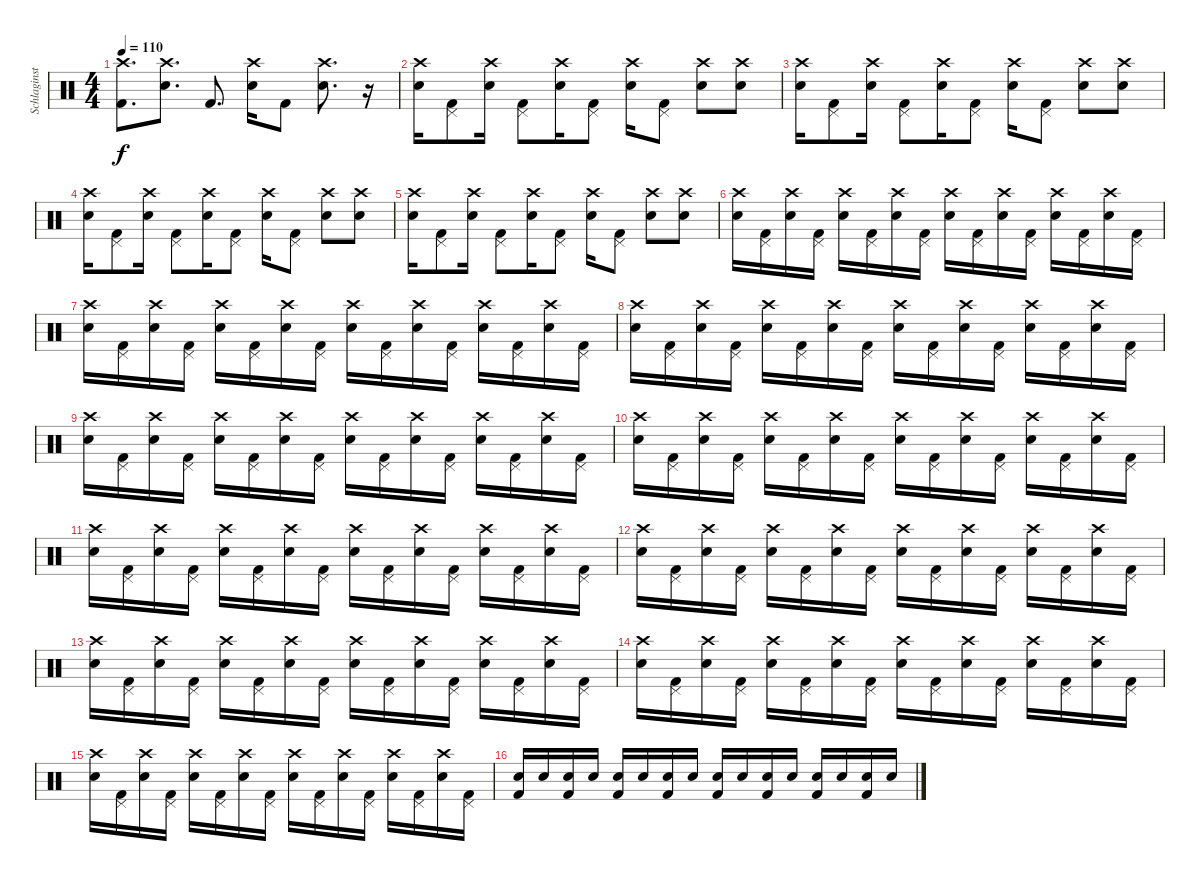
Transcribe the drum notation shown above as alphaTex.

\track ("Schlaginstrumente - Auswahl" "Schlaginst") {instrument percussion}
\staff {score}
\articulation defaults
\ts (4 4)
\tempo 110
\clef neutral
\ks c
("Crash high (hit)" "Kick (hit) 2").8{d dy f} ("Crash high (hit)" "Snare (hit) 2").8{d} "Kick (hit) 2".8{d} ("Crash high (hit)" "Snare (hit) 2").16 "Kick (hit) 2".8 ("Crash high (hit)" "Snare (hit) 2").8{d} r.16 |
("Crash high (hit)" "Snare (hit) 2").16 ("Pedal Hi-Hat (hit)" "Kick (hit) 2").8 ("Crash high (hit)" "Snare (hit) 2").16 ("Pedal Hi-Hat (hit)" "Kick (hit) 2").8 ("Crash high (hit)" "Snare (hit) 2").16 ("Pedal Hi-Hat (hit)" "Kick (hit) 2").8 ("Crash high (hit)" "Snare (hit) 2").16 ("Pedal Hi-Hat (hit)" "Kick (hit) 2").8 ("Crash high (hit)" "Snare (hit) 2").8 ("Crash high (hit)" "Snare (hit) 2").8 |
("Crash high (hit)" "Snare (hit) 2").16 ("Pedal Hi-Hat (hit)" "Kick (hit) 2").8 ("Crash high (hit)" "Snare (hit) 2").16 ("Pedal Hi-Hat (hit)" "Kick (hit) 2").8 ("Crash high (hit)" "Snare (hit) 2").16 ("Pedal Hi-Hat (hit)" "Kick (hit) 2").8 ("Crash high (hit)" "Snare (hit) 2").16 ("Pedal Hi-Hat (hit)" "Kick (hit) 2").8 ("Crash high (hit)" "Snare (hit) 2").8 ("Crash high (hit)" "Snare (hit) 2").8 |
("Crash high (hit)" "Snare (hit) 2").16 ("Pedal Hi-Hat (hit)" "Kick (hit) 2").8 ("Crash high (hit)" "Snare (hit) 2").16 ("Pedal Hi-Hat (hit)" "Kick (hit) 2").8 ("Crash high (hit)" "Snare (hit) 2").16 ("Pedal Hi-Hat (hit)" "Kick (hit) 2").8 ("Crash high (hit)" "Snare (hit) 2").16 ("Pedal Hi-Hat (hit)" "Kick (hit) 2").8 ("Crash high (hit)" "Snare (hit) 2").8 ("Crash high (hit)" "Snare (hit) 2").8 |
("Crash high (hit)" "Snare (hit) 2").16 ("Pedal Hi-Hat (hit)" "Kick (hit) 2").8 ("Crash high (hit)" "Snare (hit) 2").16 ("Pedal Hi-Hat (hit)" "Kick (hit) 2").8 ("Crash high (hit)" "Snare (hit) 2").16 ("Pedal Hi-Hat (hit)" "Kick (hit) 2").8 ("Crash high (hit)" "Snare (hit) 2").16 ("Pedal Hi-Hat (hit)" "Kick (hit) 2").8 ("Crash high (hit)" "Snare (hit) 2").8 ("Crash high (hit)" "Snare (hit) 2").8 |
("Crash high (hit)" "Snare (hit) 2").16 ("Pedal Hi-Hat (hit)" "Kick (hit) 2").16 ("Crash high (hit)" "Snare (hit) 2").16 ("Pedal Hi-Hat (hit)" "Kick (hit) 2").16 ("Crash high (hit)" "Snare (hit) 2").16 ("Pedal Hi-Hat (hit)" "Kick (hit) 2").16 ("Crash high (hit)" "Snare (hit) 2").16 ("Pedal Hi-Hat (hit)" "Kick (hit) 2").16 ("Crash high (hit)" "Snare (hit) 2").16 ("Pedal Hi-Hat (hit)" "Kick (hit) 2").16 ("Crash high (hit)" "Snare (hit) 2").16 ("Pedal Hi-Hat (hit)" "Kick (hit) 2").16 ("Crash high (hit)" "Snare (hit) 2").16 ("Pedal Hi-Hat (hit)" "Kick (hit) 2").16 ("Crash high (hit)" "Snare (hit) 2").16 ("Pedal Hi-Hat (hit)" "Kick (hit) 2").16 |
("Crash high (hit)" "Snare (hit) 2").16 ("Pedal Hi-Hat (hit)" "Kick (hit) 2").16 ("Crash high (hit)" "Snare (hit) 2").16 ("Pedal Hi-Hat (hit)" "Kick (hit) 2").16 ("Crash high (hit)" "Snare (hit) 2").16 ("Pedal Hi-Hat (hit)" "Kick (hit) 2").16 ("Crash high (hit)" "Snare (hit) 2").16 ("Pedal Hi-Hat (hit)" "Kick (hit) 2").16 ("Crash high (hit)" "Snare (hit) 2").16 ("Pedal Hi-Hat (hit)" "Kick (hit) 2").16 ("Crash high (hit)" "Snare (hit) 2").16 ("Pedal Hi-Hat (hit)" "Kick (hit) 2").16 ("Crash high (hit)" "Snare (hit) 2").16 ("Pedal Hi-Hat (hit)" "Kick (hit) 2").16 ("Crash high (hit)" "Snare (hit) 2").16 ("Pedal Hi-Hat (hit)" "Kick (hit) 2").16 |
("Crash high (hit)" "Snare (hit) 2").16 ("Pedal Hi-Hat (hit)" "Kick (hit) 2").16 ("Crash high (hit)" "Snare (hit) 2").16 ("Pedal Hi-Hat (hit)" "Kick (hit) 2").16 ("Crash high (hit)" "Snare (hit) 2").16 ("Pedal Hi-Hat (hit)" "Kick (hit) 2").16 ("Crash high (hit)" "Snare (hit) 2").16 ("Pedal Hi-Hat (hit)" "Kick (hit) 2").16 ("Crash high (hit)" "Snare (hit) 2").16 ("Pedal Hi-Hat (hit)" "Kick (hit) 2").16 ("Crash high (hit)" "Snare (hit) 2").16 ("Pedal Hi-Hat (hit)" "Kick (hit) 2").16 ("Crash high (hit)" "Snare (hit) 2").16 ("Pedal Hi-Hat (hit)" "Kick (hit) 2").16 ("Crash high (hit)" "Snare (hit) 2").16 ("Pedal Hi-Hat (hit)" "Kick (hit) 2").16 |
("Crash high (hit)" "Snare (hit) 2").16 ("Pedal Hi-Hat (hit)" "Kick (hit) 2").16 ("Crash high (hit)" "Snare (hit) 2").16 ("Pedal Hi-Hat (hit)" "Kick (hit) 2").16 ("Crash high (hit)" "Snare (hit) 2").16 ("Pedal Hi-Hat (hit)" "Kick (hit) 2").16 ("Crash high (hit)" "Snare (hit) 2").16 ("Pedal Hi-Hat (hit)" "Kick (hit) 2").16 ("Crash high (hit)" "Snare (hit) 2").16 ("Pedal Hi-Hat (hit)" "Kick (hit) 2").16 ("Crash high (hit)" "Snare (hit) 2").16 ("Pedal Hi-Hat (hit)" "Kick (hit) 2").16 ("Crash high (hit)" "Snare (hit) 2").16 ("Pedal Hi-Hat (hit)" "Kick (hit) 2").16 ("Crash high (hit)" "Snare (hit) 2").16 ("Pedal Hi-Hat (hit)" "Kick (hit) 2").16 |
("Crash high (hit)" "Snare (hit) 2").16 ("Pedal Hi-Hat (hit)" "Kick (hit) 2").16 ("Crash high (hit)" "Snare (hit) 2").16 ("Pedal Hi-Hat (hit)" "Kick (hit) 2").16 ("Crash high (hit)" "Snare (hit) 2").16 ("Pedal Hi-Hat (hit)" "Kick (hit) 2").16 ("Crash high (hit)" "Snare (hit) 2").16 ("Pedal Hi-Hat (hit)" "Kick (hit) 2").16 ("Crash high (hit)" "Snare (hit) 2").16 ("Pedal Hi-Hat (hit)" "Kick (hit) 2").16 ("Crash high (hit)" "Snare (hit) 2").16 ("Pedal Hi-Hat (hit)" "Kick (hit) 2").16 ("Crash high (hit)" "Snare (hit) 2").16 ("Pedal Hi-Hat (hit)" "Kick (hit) 2").16 ("Crash high (hit)" "Snare (hit) 2").16 ("Pedal Hi-Hat (hit)" "Kick (hit) 2").16 |
("Crash high (hit)" "Snare (hit) 2").16 ("Pedal Hi-Hat (hit)" "Kick (hit) 2").16 ("Crash high (hit)" "Snare (hit) 2").16 ("Pedal Hi-Hat (hit)" "Kick (hit) 2").16 ("Crash high (hit)" "Snare (hit) 2").16 ("Pedal Hi-Hat (hit)" "Kick (hit) 2").16 ("Crash high (hit)" "Snare (hit) 2").16 ("Pedal Hi-Hat (hit)" "Kick (hit) 2").16 ("Crash high (hit)" "Snare (hit) 2").16 ("Pedal Hi-Hat (hit)" "Kick (hit) 2").16 ("Crash high (hit)" "Snare (hit) 2").16 ("Pedal Hi-Hat (hit)" "Kick (hit) 2").16 ("Crash high (hit)" "Snare (hit) 2").16 ("Pedal Hi-Hat (hit)" "Kick (hit) 2").16 ("Crash high (hit)" "Snare (hit) 2").16 ("Pedal Hi-Hat (hit)" "Kick (hit) 2").16 |
("Crash high (hit)" "Snare (hit) 2").16 ("Pedal Hi-Hat (hit)" "Kick (hit) 2").16 ("Crash high (hit)" "Snare (hit) 2").16 ("Pedal Hi-Hat (hit)" "Kick (hit) 2").16 ("Crash high (hit)" "Snare (hit) 2").16 ("Pedal Hi-Hat (hit)" "Kick (hit) 2").16 ("Crash high (hit)" "Snare (hit) 2").16 ("Pedal Hi-Hat (hit)" "Kick (hit) 2").16 ("Crash high (hit)" "Snare (hit) 2").16 ("Pedal Hi-Hat (hit)" "Kick (hit) 2").16 ("Crash high (hit)" "Snare (hit) 2").16 ("Pedal Hi-Hat (hit)" "Kick (hit) 2").16 ("Crash high (hit)" "Snare (hit) 2").16 ("Pedal Hi-Hat (hit)" "Kick (hit) 2").16 ("Crash high (hit)" "Snare (hit) 2").16 ("Pedal Hi-Hat (hit)" "Kick (hit) 2").16 |
("Crash high (hit)" "Snare (hit) 2").16 ("Pedal Hi-Hat (hit)" "Kick (hit) 2").16 ("Crash high (hit)" "Snare (hit) 2").16 ("Pedal Hi-Hat (hit)" "Kick (hit) 2").16 ("Crash high (hit)" "Snare (hit) 2").16 ("Pedal Hi-Hat (hit)" "Kick (hit) 2").16 ("Crash high (hit)" "Snare (hit) 2").16 ("Pedal Hi-Hat (hit)" "Kick (hit) 2").16 ("Crash high (hit)" "Snare (hit) 2").16 ("Pedal Hi-Hat (hit)" "Kick (hit) 2").16 ("Crash high (hit)" "Snare (hit) 2").16 ("Pedal Hi-Hat (hit)" "Kick (hit) 2").16 ("Crash high (hit)" "Snare (hit) 2").16 ("Pedal Hi-Hat (hit)" "Kick (hit) 2").16 ("Crash high (hit)" "Snare (hit) 2").16 ("Pedal Hi-Hat (hit)" "Kick (hit) 2").16 |
("Crash high (hit)" "Snare (hit) 2").16 ("Pedal Hi-Hat (hit)" "Kick (hit) 2").16 ("Crash high (hit)" "Snare (hit) 2").16 ("Pedal Hi-Hat (hit)" "Kick (hit) 2").16 ("Crash high (hit)" "Snare (hit) 2").16 ("Pedal Hi-Hat (hit)" "Kick (hit) 2").16 ("Crash high (hit)" "Snare (hit) 2").16 ("Pedal Hi-Hat (hit)" "Kick (hit) 2").16 ("Crash high (hit)" "Snare (hit) 2").16 ("Pedal Hi-Hat (hit)" "Kick (hit) 2").16 ("Crash high (hit)" "Snare (hit) 2").16 ("Pedal Hi-Hat (hit)" "Kick (hit) 2").16 ("Crash high (hit)" "Snare (hit) 2").16 ("Pedal Hi-Hat (hit)" "Kick (hit) 2").16 ("Crash high (hit)" "Snare (hit) 2").16 ("Pedal Hi-Hat (hit)" "Kick (hit) 2").16 |
("Crash high (hit)" "Snare (hit) 2").16 ("Pedal Hi-Hat (hit)" "Kick (hit) 2").16 ("Crash high (hit)" "Snare (hit) 2").16 ("Pedal Hi-Hat (hit)" "Kick (hit) 2").16 ("Crash high (hit)" "Snare (hit) 2").16 ("Pedal Hi-Hat (hit)" "Kick (hit) 2").16 ("Crash high (hit)" "Snare (hit) 2").16 ("Pedal Hi-Hat (hit)" "Kick (hit) 2").16 ("Crash high (hit)" "Snare (hit) 2").16 ("Pedal Hi-Hat (hit)" "Kick (hit) 2").16 ("Crash high (hit)" "Snare (hit) 2").16 ("Pedal Hi-Hat (hit)" "Kick (hit) 2").16 ("Crash high (hit)" "Snare (hit) 2").16 ("Pedal Hi-Hat (hit)" "Kick (hit) 2").16 ("Crash high (hit)" "Snare (hit) 2").16 ("Pedal Hi-Hat (hit)" "Kick (hit) 2").16 |
("Kick (hit) 2" "Snare (hit) 2").16 "Snare (hit) 2".16 ("Kick (hit) 2" "Snare (hit) 2").16 "Snare (hit) 2".16 ("Kick (hit) 2" "Snare (hit) 2").16 "Snare (hit) 2".16 ("Kick (hit) 2" "Snare (hit) 2").16 "Snare (hit) 2".16 ("Kick (hit) 2" "Snare (hit) 2").16 "Snare (hit) 2".16 ("Kick (hit) 2" "Snare (hit) 2").16 "Snare (hit) 2".16 ("Kick (hit) 2" "Snare (hit) 2").16 "Snare (hit) 2".16 ("Kick (hit) 2" "Snare (hit) 2").16 "Snare (hit) 2".16
